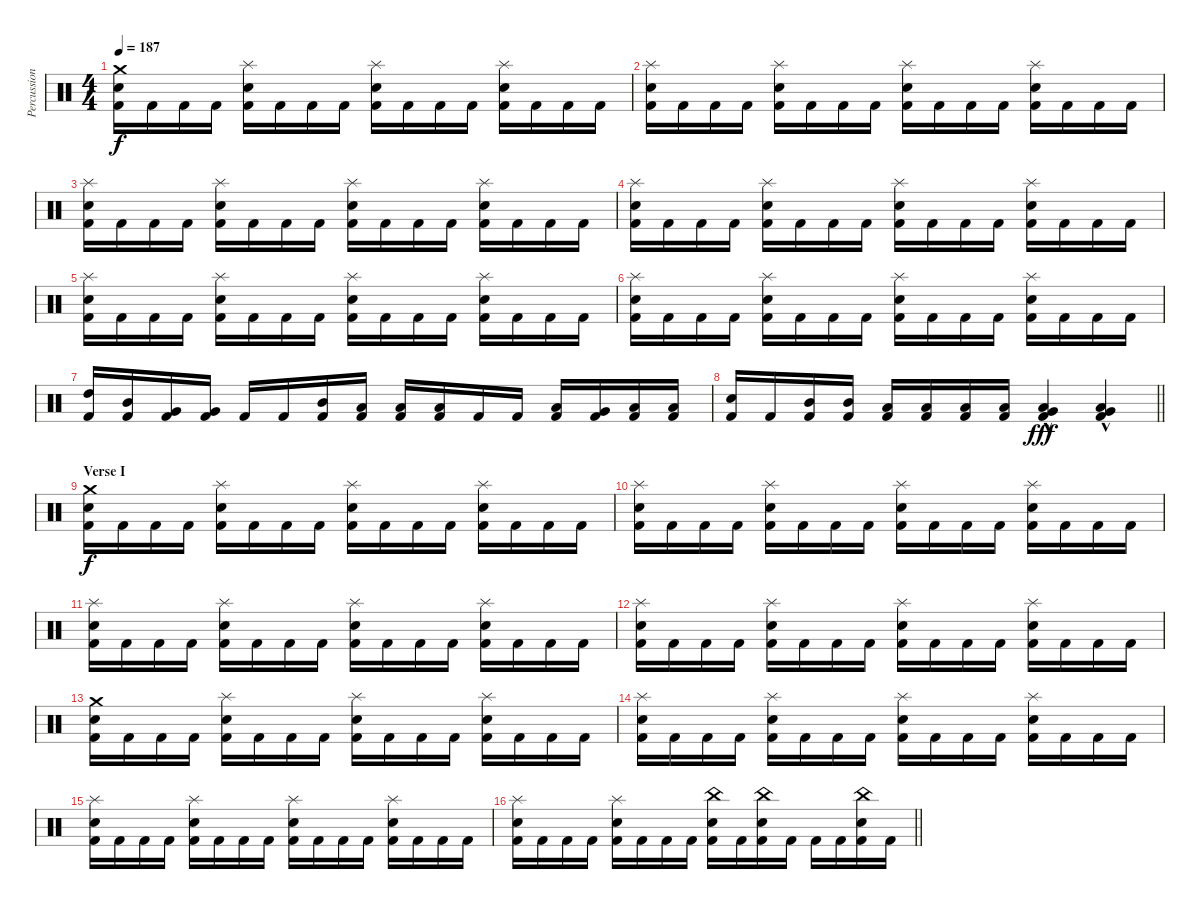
\track ("Percussion" "Percussion") {instrument percussion}
\staff {score}
\articulation defaults
\ts (4 4)
\section ("" "")
\tempo 187
\clef neutral
\ks c
("Kick (hit) 2" "Snare (hit) 2" "Crash medium (hit)").16{dy f} "Kick (hit) 2".16 "Kick (hit) 2".16 "Kick (hit) 2".16 ("Kick (hit) 2" "Snare (hit) 2" "Splash (hit)").16 "Kick (hit) 2".16 "Kick (hit) 2".16 "Kick (hit) 2".16 ("Kick (hit) 2" "Snare (hit) 2" "Splash (hit)").16 "Kick (hit) 2".16 "Kick (hit) 2".16 "Kick (hit) 2".16 ("Kick (hit) 2" "Snare (hit) 2" "Splash (hit)").16 "Kick (hit) 2".16 "Kick (hit) 2".16 "Kick (hit) 2".16 |
("Kick (hit) 2" "Snare (hit) 2" "Splash (hit)").16 "Kick (hit) 2".16 "Kick (hit) 2".16 "Kick (hit) 2".16 ("Kick (hit) 2" "Snare (hit) 2" "Splash (hit)").16 "Kick (hit) 2".16 "Kick (hit) 2".16 "Kick (hit) 2".16 ("Kick (hit) 2" "Snare (hit) 2" "Splash (hit)").16 "Kick (hit) 2".16 "Kick (hit) 2".16 "Kick (hit) 2".16 ("Kick (hit) 2" "Snare (hit) 2" "Splash (hit)").16 "Kick (hit) 2".16 "Kick (hit) 2".16 "Kick (hit) 2".16 |
("Kick (hit) 2" "Snare (hit) 2" "Splash (hit)").16 "Kick (hit) 2".16 "Kick (hit) 2".16 "Kick (hit) 2".16 ("Kick (hit) 2" "Snare (hit) 2" "Splash (hit)").16 "Kick (hit) 2".16 "Kick (hit) 2".16 "Kick (hit) 2".16 ("Kick (hit) 2" "Snare (hit) 2" "Splash (hit)").16 "Kick (hit) 2".16 "Kick (hit) 2".16 "Kick (hit) 2".16 ("Kick (hit) 2" "Snare (hit) 2" "Splash (hit)").16 "Kick (hit) 2".16 "Kick (hit) 2".16 "Kick (hit) 2".16 |
("Kick (hit) 2" "Snare (hit) 2" "Splash (hit)").16 "Kick (hit) 2".16 "Kick (hit) 2".16 "Kick (hit) 2".16 ("Kick (hit) 2" "Snare (hit) 2" "Splash (hit)").16 "Kick (hit) 2".16 "Kick (hit) 2".16 "Kick (hit) 2".16 ("Kick (hit) 2" "Snare (hit) 2" "Splash (hit)").16 "Kick (hit) 2".16 "Kick (hit) 2".16 "Kick (hit) 2".16 ("Kick (hit) 2" "Snare (hit) 2" "Splash (hit)").16 "Kick (hit) 2".16 "Kick (hit) 2".16 "Kick (hit) 2".16 |
("Kick (hit) 2" "Snare (hit) 2" "Splash (hit)").16 "Kick (hit) 2".16 "Kick (hit) 2".16 "Kick (hit) 2".16 ("Kick (hit) 2" "Snare (hit) 2" "Splash (hit)").16 "Kick (hit) 2".16 "Kick (hit) 2".16 "Kick (hit) 2".16 ("Kick (hit) 2" "Snare (hit) 2" "Splash (hit)").16 "Kick (hit) 2".16 "Kick (hit) 2".16 "Kick (hit) 2".16 ("Kick (hit) 2" "Snare (hit) 2" "Splash (hit)").16 "Kick (hit) 2".16 "Kick (hit) 2".16 "Kick (hit) 2".16 |
("Kick (hit) 2" "Snare (hit) 2" "Splash (hit)").16 "Kick (hit) 2".16 "Kick (hit) 2".16 "Kick (hit) 2".16 ("Kick (hit) 2" "Snare (hit) 2" "Splash (hit)").16 "Kick (hit) 2".16 "Kick (hit) 2".16 "Kick (hit) 2".16 ("Kick (hit) 2" "Snare (hit) 2" "Splash (hit)").16 "Kick (hit) 2".16 "Kick (hit) 2".16 "Kick (hit) 2".16 ("Kick (hit) 2" "Snare (hit) 2" "Splash (hit)").16 "Kick (hit) 2".16 "Kick (hit) 2".16 "Kick (hit) 2".16 |
("Kick (hit) 2" "High Tom (hit)").16 ("Kick (hit) 2" "Mid Tom (hit)").16 ("Kick (hit) 2" "Very Low Tom (hit)").16 ("Kick (hit) 2" "Very Low Tom (hit)").16 "Kick (hit) 2".16 "Kick (hit) 2".16 ("Kick (hit) 2" "Mid Tom (hit)").16 ("Kick (hit) 2" "Low Tom (hit)").16 ("Kick (hit) 2" "Low Floor Tom (hit)").16 ("Kick (hit) 2" "Low Floor Tom (hit)").16 "Kick (hit) 2".16 "Kick (hit) 2".16 ("Kick (hit) 2" "Low Tom (hit)").16 ("Kick (hit) 2" "Very Low Tom (hit)").16 ("Kick (hit) 2" "Low Floor Tom (hit)").16 ("Kick (hit) 2" "Low Floor Tom (hit)").16 |
\barLineRight lightlight
("Kick (hit) 2" "Snare (hit) 2").16 "Kick (hit) 2".16 ("Kick (hit) 2" "Mid Tom (hit)").16 ("Kick (hit) 2" "Mid Tom (hit)").16 ("Kick (hit) 2" "Low Tom (hit)").16 ("Kick (hit) 2" "Low Tom (hit)").16 ("Kick (hit) 2" "Low Floor Tom (hit)").16 ("Kick (hit) 2" "Low Floor Tom (hit)").16 ("Kick (hit) 2" "Low Floor Tom (hit)"{hac} "Very Low Tom (hit)"{hac}).4{dy fff} ("Kick (hit) 2" "Low Floor Tom (hit)"{hac} "Very Low Tom (hit)"{hac}).4 |
\section ("" "Verse I")
("Kick (hit) 2" "Snare (hit) 2" "Crash medium (hit)").16{dy f} "Kick (hit) 2".16 "Kick (hit) 2".16 "Kick (hit) 2".16 ("Kick (hit) 2" "Snare (hit) 2" "Splash (hit)").16 "Kick (hit) 2".16 "Kick (hit) 2".16 "Kick (hit) 2".16 ("Kick (hit) 2" "Snare (hit) 2" "Splash (hit)").16 "Kick (hit) 2".16 "Kick (hit) 2".16 "Kick (hit) 2".16 ("Kick (hit) 2" "Snare (hit) 2" "Splash (hit)").16 "Kick (hit) 2".16 "Kick (hit) 2".16 "Kick (hit) 2".16 |
("Kick (hit) 2" "Snare (hit) 2" "Splash (hit)").16 "Kick (hit) 2".16 "Kick (hit) 2".16 "Kick (hit) 2".16 ("Kick (hit) 2" "Snare (hit) 2" "Splash (hit)").16 "Kick (hit) 2".16 "Kick (hit) 2".16 "Kick (hit) 2".16 ("Kick (hit) 2" "Snare (hit) 2" "Splash (hit)").16 "Kick (hit) 2".16 "Kick (hit) 2".16 "Kick (hit) 2".16 ("Kick (hit) 2" "Snare (hit) 2" "Splash (hit)").16 "Kick (hit) 2".16 "Kick (hit) 2".16 "Kick (hit) 2".16 |
("Kick (hit) 2" "Snare (hit) 2" "Splash (hit)").16 "Kick (hit) 2".16 "Kick (hit) 2".16 "Kick (hit) 2".16 ("Kick (hit) 2" "Snare (hit) 2" "Splash (hit)").16 "Kick (hit) 2".16 "Kick (hit) 2".16 "Kick (hit) 2".16 ("Kick (hit) 2" "Snare (hit) 2" "Splash (hit)").16 "Kick (hit) 2".16 "Kick (hit) 2".16 "Kick (hit) 2".16 ("Kick (hit) 2" "Snare (hit) 2" "Splash (hit)").16 "Kick (hit) 2".16 "Kick (hit) 2".16 "Kick (hit) 2".16 |
("Kick (hit) 2" "Snare (hit) 2" "Splash (hit)").16 "Kick (hit) 2".16 "Kick (hit) 2".16 "Kick (hit) 2".16 ("Kick (hit) 2" "Snare (hit) 2" "Splash (hit)").16 "Kick (hit) 2".16 "Kick (hit) 2".16 "Kick (hit) 2".16 ("Kick (hit) 2" "Snare (hit) 2" "Splash (hit)").16 "Kick (hit) 2".16 "Kick (hit) 2".16 "Kick (hit) 2".16 ("Kick (hit) 2" "Snare (hit) 2" "Splash (hit)").16 "Kick (hit) 2".16 "Kick (hit) 2".16 "Kick (hit) 2".16 |
("Kick (hit) 2" "Snare (hit) 2" "Crash medium (hit)").16 "Kick (hit) 2".16 "Kick (hit) 2".16 "Kick (hit) 2".16 ("Kick (hit) 2" "Snare (hit) 2" "Splash (hit)").16 "Kick (hit) 2".16 "Kick (hit) 2".16 "Kick (hit) 2".16 ("Kick (hit) 2" "Snare (hit) 2" "Splash (hit)").16 "Kick (hit) 2".16 "Kick (hit) 2".16 "Kick (hit) 2".16 ("Kick (hit) 2" "Snare (hit) 2" "Splash (hit)").16 "Kick (hit) 2".16 "Kick (hit) 2".16 "Kick (hit) 2".16 |
("Kick (hit) 2" "Snare (hit) 2" "Splash (hit)").16 "Kick (hit) 2".16 "Kick (hit) 2".16 "Kick (hit) 2".16 ("Kick (hit) 2" "Snare (hit) 2" "Splash (hit)").16 "Kick (hit) 2".16 "Kick (hit) 2".16 "Kick (hit) 2".16 ("Kick (hit) 2" "Snare (hit) 2" "Splash (hit)").16 "Kick (hit) 2".16 "Kick (hit) 2".16 "Kick (hit) 2".16 ("Kick (hit) 2" "Snare (hit) 2" "Splash (hit)").16 "Kick (hit) 2".16 "Kick (hit) 2".16 "Kick (hit) 2".16 |
("Kick (hit) 2" "Snare (hit) 2" "Splash (hit)").16 "Kick (hit) 2".16 "Kick (hit) 2".16 "Kick (hit) 2".16 ("Kick (hit) 2" "Snare (hit) 2" "Splash (hit)").16 "Kick (hit) 2".16 "Kick (hit) 2".16 "Kick (hit) 2".16 ("Kick (hit) 2" "Snare (hit) 2" "Splash (hit)").16 "Kick (hit) 2".16 "Kick (hit) 2".16 "Kick (hit) 2".16 ("Kick (hit) 2" "Snare (hit) 2" "Splash (hit)").16 "Kick (hit) 2".16 "Kick (hit) 2".16 "Kick (hit) 2".16 |
\barLineRight lightlight
("Kick (hit) 2" "Snare (hit) 2" "Splash (hit)").16 "Kick (hit) 2".16 "Kick (hit) 2".16 "Kick (hit) 2".16 ("Kick (hit) 2" "Snare (hit) 2" "Splash (hit)").16 "Kick (hit) 2".16 "Kick (hit) 2".16 "Kick (hit) 2".16 ("Kick (hit) 2" "Snare (hit) 2" "China (hit)").16 "Kick (hit) 2".16 ("Kick (hit) 2" "Snare (hit) 2" "China (hit)").16 "Kick (hit) 2".16 "Kick (hit) 2".16 "Kick (hit) 2".16 ("Kick (hit) 2" "Snare (hit) 2" "China (hit)").16 "Kick (hit) 2".16
